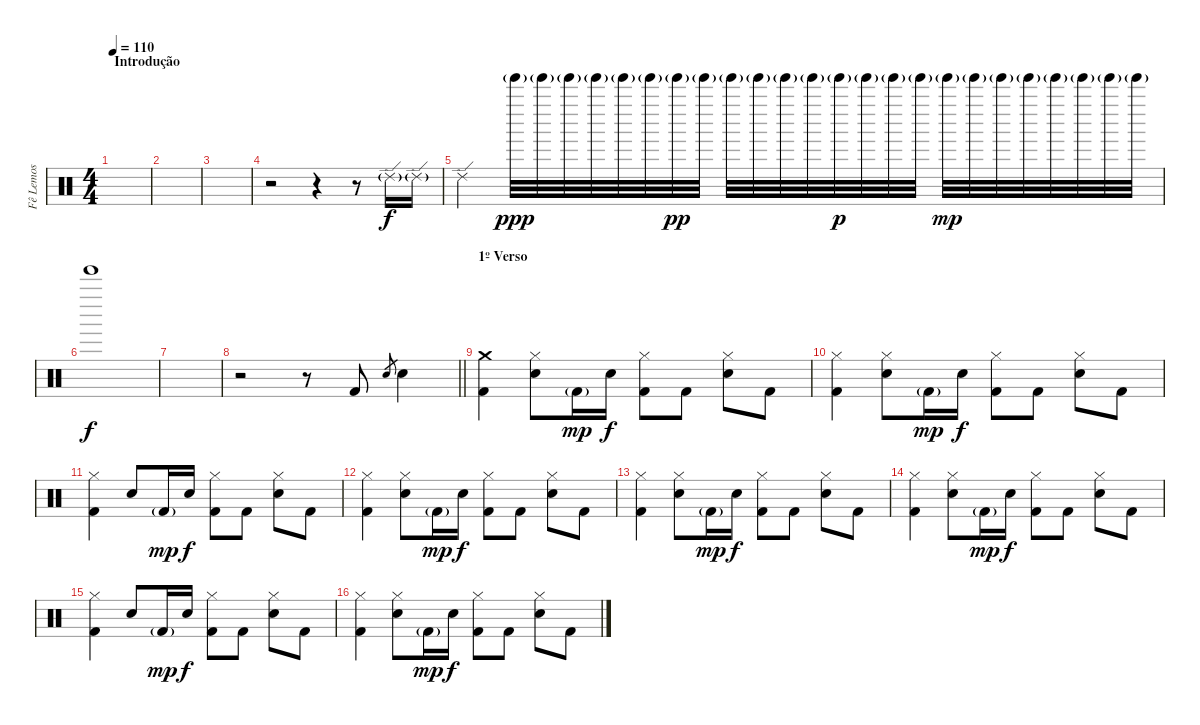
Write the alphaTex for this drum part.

\track ("Fê Lemos" "Fê Lemos") {instrument percussion}
\staff {score}
\articulation defaults
\ts (4 4)
\section ("" "Introdução")
\tempo 110
\clef neutral
\ks c
|
|
|
r.2 r.4 r.8 "Ride (edge) 2"{g}.16 "Ride (edge) 2"{g}.16 |
"Ride (edge) 2".4{dy f} "Tinkle Bell (hit)"{g}.32{dy ppp} "Tinkle Bell (hit)"{g}.32 "Tinkle Bell (hit)"{g}.32 "Tinkle Bell (hit)"{g}.32 "Tinkle Bell (hit)"{g}.32 "Tinkle Bell (hit)"{g}.32 "Tinkle Bell (hit)"{g}.32{dy pp} "Tinkle Bell (hit)"{g}.32 "Tinkle Bell (hit)"{g}.32 "Tinkle Bell (hit)"{g}.32 "Tinkle Bell (hit)"{g}.32 "Tinkle Bell (hit)"{g}.32 "Tinkle Bell (hit)"{g}.32{dy p} "Tinkle Bell (hit)"{g}.32 "Tinkle Bell (hit)"{g}.32 "Tinkle Bell (hit)"{g}.32 "Tinkle Bell (hit)"{g}.32{dy mp} "Tinkle Bell (hit)"{g}.32 "Tinkle Bell (hit)"{g}.32 "Tinkle Bell (hit)"{g}.32 "Tinkle Bell (hit)"{g}.32 "Tinkle Bell (hit)"{g}.32 "Tinkle Bell (hit)"{g}.32 "Tinkle Bell (hit)"{g}.32 |
"Tinkle Bell (hit)".1{dy f} |
|
\barLineRight lightlight
r.2 r.8 "Kick (hit) 2".8 "Electric Snare (hit)".8{gr} "Electric Snare (hit)".4 |
\section ("" "1º Verso")
("Crash medium (hit)" "Kick (hit) 2").4 ("Hi-Hat (closed)" "Electric Snare (hit)").8 "Kick (hit) 2"{g}.16{dy mp} "Electric Snare (hit)".16{dy f} ("Hi-Hat (closed)" "Kick (hit) 2").8 "Kick (hit) 2".8 ("Hi-Hat (closed)" "Electric Snare (hit)").8 "Kick (hit) 2".8 |
("Hi-Hat (closed)" "Kick (hit) 2").4 ("Hi-Hat (closed)" "Electric Snare (hit)").8 "Kick (hit) 2"{g}.16{dy mp} "Electric Snare (hit)".16{dy f} ("Hi-Hat (closed)" "Kick (hit) 2").8 "Kick (hit) 2".8 ("Hi-Hat (closed)" "Electric Snare (hit)").8 "Kick (hit) 2".8 |
("Hi-Hat (closed)" "Kick (hit) 2").4 "Electric Snare (hit)".8 "Kick (hit) 2"{g}.16{dy mp} "Electric Snare (hit)".16{dy f} ("Hi-Hat (closed)" "Kick (hit) 2").8 "Kick (hit) 2".8 ("Hi-Hat (closed)" "Electric Snare (hit)").8 "Kick (hit) 2".8 |
("Hi-Hat (closed)" "Kick (hit) 2").4 ("Hi-Hat (closed)" "Electric Snare (hit)").8 "Kick (hit) 2"{g}.16{dy mp} "Electric Snare (hit)".16{dy f} ("Hi-Hat (closed)" "Kick (hit) 2").8 "Kick (hit) 2".8 ("Hi-Hat (closed)" "Electric Snare (hit)").8 "Kick (hit) 2".8 |
("Hi-Hat (closed)" "Kick (hit) 2").4 ("Hi-Hat (closed)" "Electric Snare (hit)").8 "Kick (hit) 2"{g}.16{dy mp} "Electric Snare (hit)".16{dy f} ("Hi-Hat (closed)" "Kick (hit) 2").8 "Kick (hit) 2".8 ("Hi-Hat (closed)" "Electric Snare (hit)").8 "Kick (hit) 2".8 |
("Hi-Hat (closed)" "Kick (hit) 2").4 ("Hi-Hat (closed)" "Electric Snare (hit)").8 "Kick (hit) 2"{g}.16{dy mp} "Electric Snare (hit)".16{dy f} ("Hi-Hat (closed)" "Kick (hit) 2").8 "Kick (hit) 2".8 ("Hi-Hat (closed)" "Electric Snare (hit)").8 "Kick (hit) 2".8 |
("Hi-Hat (closed)" "Kick (hit) 2").4 "Electric Snare (hit)".8 "Kick (hit) 2"{g}.16{dy mp} "Electric Snare (hit)".16{dy f} ("Hi-Hat (closed)" "Kick (hit) 2").8 "Kick (hit) 2".8 ("Hi-Hat (closed)" "Electric Snare (hit)").8 "Kick (hit) 2".8 |
("Hi-Hat (closed)" "Kick (hit) 2").4 ("Hi-Hat (closed)" "Electric Snare (hit)").8 "Kick (hit) 2"{g}.16{dy mp} "Electric Snare (hit)".16{dy f} ("Hi-Hat (closed)" "Kick (hit) 2").8 "Kick (hit) 2".8 ("Hi-Hat (closed)" "Electric Snare (hit)").8 "Kick (hit) 2".8
